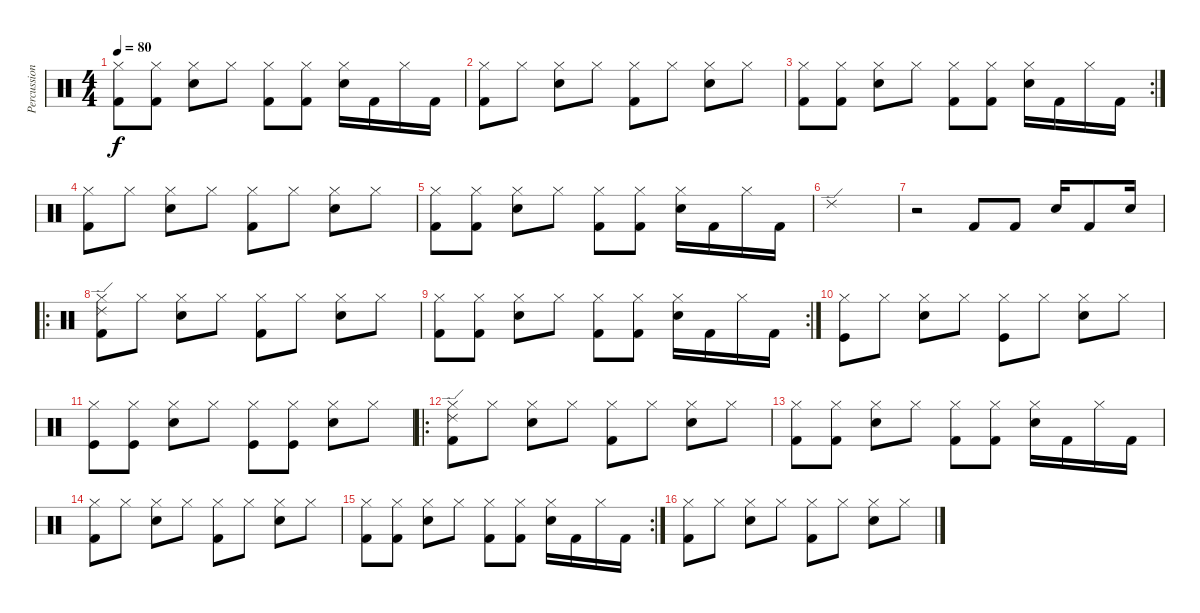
\track ("Percussion" "Percussion") {instrument percussion}
\staff {score}
\articulation defaults
\ts (4 4)
\tempo 80
\clef neutral
\ks c
("Hi-Hat (closed)" "Kick (hit) 2").8{dy f} ("Hi-Hat (closed)" "Kick (hit) 2").8 ("Hi-Hat (closed)" "Electric Snare (hit)").8 "Hi-Hat (closed)".8 ("Hi-Hat (closed)" "Kick (hit) 2").8 ("Hi-Hat (closed)" "Kick (hit) 2").8 ("Hi-Hat (closed)" "Electric Snare (hit)").16 "Kick (hit) 2".16 "Hi-Hat (closed)".16 "Kick (hit) 2".16 |
("Hi-Hat (closed)" "Kick (hit) 2").8 "Hi-Hat (closed)".8 ("Hi-Hat (closed)" "Electric Snare (hit)").8 "Hi-Hat (closed)".8 ("Hi-Hat (closed)" "Kick (hit) 2").8 "Hi-Hat (closed)".8 ("Hi-Hat (closed)" "Electric Snare (hit)").8 "Hi-Hat (closed)".8 |
\rc 2
("Hi-Hat (closed)" "Kick (hit) 2").8 ("Hi-Hat (closed)" "Kick (hit) 2").8 ("Hi-Hat (closed)" "Electric Snare (hit)").8 "Hi-Hat (closed)".8 ("Hi-Hat (closed)" "Kick (hit) 2").8 ("Hi-Hat (closed)" "Kick (hit) 2").8 ("Hi-Hat (closed)" "Electric Snare (hit)").16 "Kick (hit) 2".16 "Hi-Hat (closed)".16 "Kick (hit) 2".16 |
("Hi-Hat (closed)" "Kick (hit) 2").8 "Hi-Hat (closed)".8 ("Hi-Hat (closed)" "Electric Snare (hit)").8 "Hi-Hat (closed)".8 ("Hi-Hat (closed)" "Kick (hit) 2").8 "Hi-Hat (closed)".8 ("Hi-Hat (closed)" "Electric Snare (hit)").8 "Hi-Hat (closed)".8 |
("Hi-Hat (closed)" "Kick (hit) 2").8 ("Hi-Hat (closed)" "Kick (hit) 2").8 ("Hi-Hat (closed)" "Electric Snare (hit)").8 "Hi-Hat (closed)".8 ("Hi-Hat (closed)" "Kick (hit) 2").8 ("Hi-Hat (closed)" "Kick (hit) 2").8 ("Hi-Hat (closed)" "Electric Snare (hit)").16 "Kick (hit) 2".16 "Hi-Hat (closed)".16 "Kick (hit) 2".16 |
"Ride (edge) 2".1 |
r.2 "Kick (hit) 2".8 "Kick (hit) 2".8 "Electric Snare (hit)".16 "Kick (hit) 2".8 "Electric Snare (hit)".16 |
\ro
("Hi-Hat (closed)" "Kick (hit) 2" "Ride (edge) 2").8 "Hi-Hat (closed)".8 ("Hi-Hat (closed)" "Electric Snare (hit)").8 "Hi-Hat (closed)".8 ("Hi-Hat (closed)" "Kick (hit) 2").8 "Hi-Hat (closed)".8 ("Hi-Hat (closed)" "Electric Snare (hit)").8 "Hi-Hat (closed)".8 |
\rc 2
("Hi-Hat (closed)" "Kick (hit) 2").8 ("Hi-Hat (closed)" "Kick (hit) 2").8 ("Hi-Hat (closed)" "Electric Snare (hit)").8 "Hi-Hat (closed)".8 ("Hi-Hat (closed)" "Kick (hit) 2").8 ("Hi-Hat (closed)" "Kick (hit) 2").8 ("Hi-Hat (closed)" "Electric Snare (hit)").16 "Kick (hit) 2".16 "Hi-Hat (closed)".16 "Kick (hit) 2".16 |
("Hi-Hat (closed)" "Kick (hit)").8 "Hi-Hat (closed)".8 ("Hi-Hat (closed)" "Electric Snare (hit)").8 "Hi-Hat (closed)".8 ("Hi-Hat (closed)" "Kick (hit)").8 "Hi-Hat (closed)".8 ("Hi-Hat (closed)" "Electric Snare (hit)").8 "Hi-Hat (closed)".8 |
("Hi-Hat (closed)" "Kick (hit)").8 ("Hi-Hat (closed)" "Kick (hit)").8 ("Hi-Hat (closed)" "Electric Snare (hit)").8 "Hi-Hat (closed)".8 ("Hi-Hat (closed)" "Kick (hit)").8 ("Hi-Hat (closed)" "Kick (hit)").8 ("Hi-Hat (closed)" "Electric Snare (hit)").8 "Hi-Hat (closed)".8 |
\ro
("Hi-Hat (closed)" "Kick (hit) 2" "Ride (edge) 2").8 "Hi-Hat (closed)".8 ("Hi-Hat (closed)" "Electric Snare (hit)").8 "Hi-Hat (closed)".8 ("Hi-Hat (closed)" "Kick (hit) 2").8 "Hi-Hat (closed)".8 ("Hi-Hat (closed)" "Electric Snare (hit)").8 "Hi-Hat (closed)".8 |
("Hi-Hat (closed)" "Kick (hit) 2").8 ("Hi-Hat (closed)" "Kick (hit) 2").8 ("Hi-Hat (closed)" "Electric Snare (hit)").8 "Hi-Hat (closed)".8 ("Hi-Hat (closed)" "Kick (hit) 2").8 ("Hi-Hat (closed)" "Kick (hit) 2").8 ("Hi-Hat (closed)" "Electric Snare (hit)").16 "Kick (hit) 2".16 "Hi-Hat (closed)".16 "Kick (hit) 2".16 |
("Hi-Hat (closed)" "Kick (hit) 2").8 "Hi-Hat (closed)".8 ("Hi-Hat (closed)" "Electric Snare (hit)").8 "Hi-Hat (closed)".8 ("Hi-Hat (closed)" "Kick (hit) 2").8 "Hi-Hat (closed)".8 ("Hi-Hat (closed)" "Electric Snare (hit)").8 "Hi-Hat (closed)".8 |
\rc 2
("Hi-Hat (closed)" "Kick (hit) 2").8 ("Hi-Hat (closed)" "Kick (hit) 2").8 ("Hi-Hat (closed)" "Electric Snare (hit)").8 "Hi-Hat (closed)".8 ("Hi-Hat (closed)" "Kick (hit) 2").8 ("Hi-Hat (closed)" "Kick (hit) 2").8 ("Hi-Hat (closed)" "Electric Snare (hit)").16 "Kick (hit) 2".16 "Hi-Hat (closed)".16 "Kick (hit) 2".16 |
("Hi-Hat (closed)" "Kick (hit) 2").8 "Hi-Hat (closed)".8 ("Hi-Hat (closed)" "Electric Snare (hit)").8 "Hi-Hat (closed)".8 ("Hi-Hat (closed)" "Kick (hit) 2").8 "Hi-Hat (closed)".8 ("Hi-Hat (closed)" "Electric Snare (hit)").8 "Hi-Hat (closed)".8
